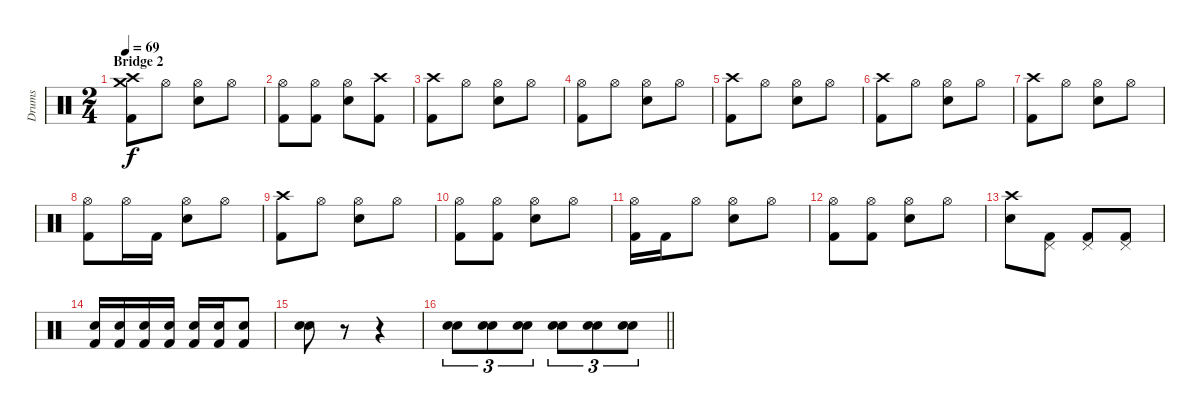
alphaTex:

\track ("Drums" "Drums") {instrument percussion}
\staff {score}
\articulation defaults
\ts (2 4)
\section ("" "Bridge 2")
\tempo 69
\clef neutral
\ks c
("Kick (hit) 2" "Crash high (hit)" "Crash medium (hit)").8{dy f} "Hi-Hat (open)".8 ("Electric Snare (hit)" "Hi-Hat (open)").8 "Hi-Hat (open)".8 |
("Kick (hit) 2" "Hi-Hat (open)").8 ("Kick (hit) 2" "Hi-Hat (open)").8 ("Electric Snare (hit)" "Hi-Hat (open)").8 ("Kick (hit) 2" "Crash high (hit)").8 |
("Kick (hit) 2" "Crash high (hit)").8 "Hi-Hat (open)".8 ("Electric Snare (hit)" "Hi-Hat (open)").8 "Hi-Hat (open)".8 |
("Kick (hit) 2" "Hi-Hat (open)").8 "Hi-Hat (open)".8 ("Electric Snare (hit)" "Hi-Hat (open)").8 "Hi-Hat (open)".8 |
("Kick (hit) 2" "Crash high (hit)").8 "Hi-Hat (open)".8 ("Electric Snare (hit)" "Hi-Hat (open)").8 "Hi-Hat (open)".8 |
("Kick (hit) 2" "Crash high (hit)").8 "Hi-Hat (open)".8 ("Electric Snare (hit)" "Hi-Hat (open)").8 "Hi-Hat (open)".8 |
("Kick (hit) 2" "Crash high (hit)").8 "Hi-Hat (open)".8 ("Electric Snare (hit)" "Hi-Hat (open)").8 "Hi-Hat (open)".8 |
("Kick (hit) 2" "Hi-Hat (open)").8 "Hi-Hat (open)".16 "Kick (hit) 2".16 ("Electric Snare (hit)" "Hi-Hat (open)").8 "Hi-Hat (open)".8 |
("Kick (hit) 2" "Crash high (hit)").8 "Hi-Hat (open)".8 ("Electric Snare (hit)" "Hi-Hat (open)").8 "Hi-Hat (open)".8 |
("Kick (hit) 2" "Hi-Hat (open)").8 ("Kick (hit) 2" "Hi-Hat (open)").8 ("Electric Snare (hit)" "Hi-Hat (open)").8 "Hi-Hat (open)".8 |
("Kick (hit) 2" "Hi-Hat (open)").16 "Kick (hit) 2".16 "Hi-Hat (open)".8 ("Electric Snare (hit)" "Hi-Hat (open)").8 "Hi-Hat (open)".8 |
("Kick (hit) 2" "Hi-Hat (open)").8 ("Kick (hit) 2" "Hi-Hat (open)").8 ("Electric Snare (hit)" "Hi-Hat (open)").8 "Hi-Hat (open)".8 |
("Electric Snare (hit)" "Crash high (hit)").8 ("Kick (hit) 2" "Pedal Hi-Hat (hit)").8 ("Kick (hit) 2" "Pedal Hi-Hat (hit)").8 ("Kick (hit) 2" "Pedal Hi-Hat (hit)").8 |
("Kick (hit) 2" "Electric Snare (hit)").16 ("Kick (hit) 2" "Electric Snare (hit)").16 ("Kick (hit) 2" "Electric Snare (hit)").16 ("Kick (hit) 2" "Electric Snare (hit)").16 ("Kick (hit) 2" "Electric Snare (hit)").16 ("Kick (hit) 2" "Electric Snare (hit)").16 ("Kick (hit) 2" "Electric Snare (hit)").8 |
("Electric Snare (hit)" "Electric Snare (hit)").8 r.8 r.4 |
\barLineRight lightlight
("Electric Snare (hit)" "Electric Snare (hit)").8{tu (3 2)} ("Electric Snare (hit)" "Electric Snare (hit)").8{tu (3 2)} ("Electric Snare (hit)" "Electric Snare (hit)").8{tu (3 2)} ("Electric Snare (hit)" "Electric Snare (hit)").8{tu (3 2)} ("Electric Snare (hit)" "Electric Snare (hit)").8{tu (3 2)} ("Electric Snare (hit)" "Electric Snare (hit)").8{tu (3 2)}
